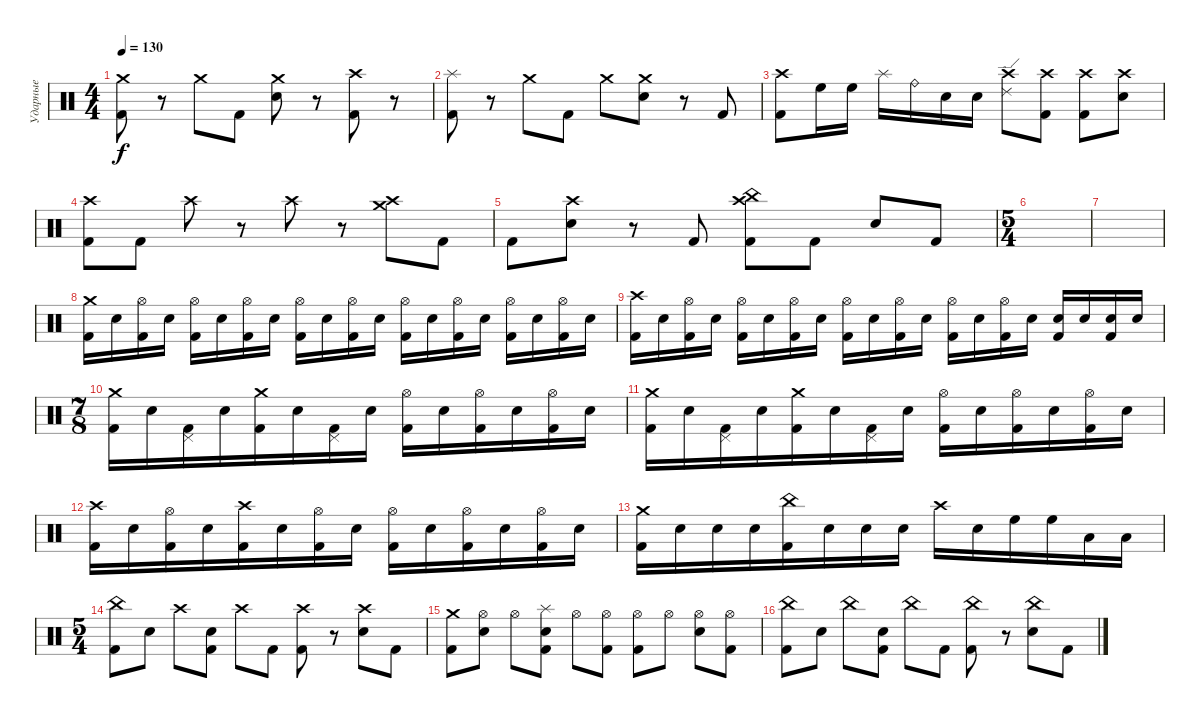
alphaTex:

\track ("Ударные" "Ударные") {instrument percussion}
\staff {score}
\articulation defaults
\ts (4 4)
\tempo 130
\clef neutral
\ks c
("Crash medium (hit)" "Kick (hit) 2").8{dy f} r.8 "Crash medium (hit)".8 "Kick (hit) 2".8 ("Crash medium (hit)" "Electric Snare (hit)").8 r.8 ("Crash high (hit)" "Kick (hit) 2").8 r.8 |
("Splash (hit)" "Kick (hit) 2").8 r.8 "Crash medium (hit)".8 "Kick (hit) 2".8 "Crash medium (hit)".8 ("Crash medium (hit)" "Electric Snare (hit)").8 r.8 "Kick (hit) 2".8 |
("Crash high (hit)" "Kick (hit) 2").8 "High Floor Tom (hit)".16 "High Floor Tom (hit)".16 "Splash (hit)".16 "Ride (bell)".16 "Electric Snare (hit)".16 "Electric Snare (hit)".16 ("Ride (edge) 2" "Crash high (hit)").8 ("Crash high (hit)" "Kick (hit) 2").8 ("Crash high (hit)" "Kick (hit) 2").8 ("Crash high (hit)" "Electric Snare (hit)").8 |
("Crash high (hit)" "Kick (hit) 2").8 "Kick (hit) 2".8 "Crash high (hit)".8 r.8 "Crash high (hit)".8 r.8 ("Crash high (hit)" "Crash medium (hit)").8 "Kick (hit) 2".8 |
"Kick (hit) 2".8 ("Crash high (hit)" "Electric Snare (hit)").8 r.8 "Kick (hit) 2".8 ("Crash high (hit)" "China (hit)" "Kick (hit) 2").8 "Kick (hit) 2".8 "Electric Snare (hit)".8 "Kick (hit) 2".8 |
\ts (5 4)
|
|
("Crash medium (hit)" "Kick (hit) 2").16 "Electric Snare (hit)".16 ("Hi-Hat (open)" "Kick (hit) 2").16 "Electric Snare (hit)".16 ("Hi-Hat (open)" "Kick (hit) 2").16 "Electric Snare (hit)".16 ("Hi-Hat (open)" "Kick (hit) 2").16 "Electric Snare (hit)".16 ("Hi-Hat (open)" "Kick (hit) 2").16 "Electric Snare (hit)".16 ("Hi-Hat (open)" "Kick (hit) 2").16 "Electric Snare (hit)".16 ("Hi-Hat (open)" "Kick (hit) 2").16 "Electric Snare (hit)".16 ("Hi-Hat (open)" "Kick (hit) 2").16 "Electric Snare (hit)".16 ("Hi-Hat (open)" "Kick (hit) 2").16 "Electric Snare (hit)".16 ("Hi-Hat (open)" "Kick (hit) 2").16 "Electric Snare (hit)".16 |
("Crash high (hit)" "Kick (hit) 2").16 "Electric Snare (hit)".16 ("Hi-Hat (open)" "Kick (hit) 2").16 "Electric Snare (hit)".16 ("Hi-Hat (open)" "Kick (hit) 2").16 "Electric Snare (hit)".16 ("Hi-Hat (open)" "Kick (hit) 2").16 "Electric Snare (hit)".16 ("Hi-Hat (open)" "Kick (hit) 2").16 "Electric Snare (hit)".16 ("Hi-Hat (open)" "Kick (hit) 2").16 "Electric Snare (hit)".16 ("Hi-Hat (open)" "Kick (hit) 2").16 "Electric Snare (hit)".16 ("Hi-Hat (open)" "Kick (hit) 2").16 "Electric Snare (hit)".16 ("Electric Snare (hit)" "Kick (hit) 2").16 "Electric Snare (hit)".16 ("Electric Snare (hit)" "Kick (hit) 2").16 "Electric Snare (hit)".16 |
\ts (7 8)
("Crash medium (hit)" "Kick (hit) 2").16 "Electric Snare (hit)".16 ("Pedal Hi-Hat (hit)" "Kick (hit) 2").16 "Electric Snare (hit)".16 ("Crash medium (hit)" "Kick (hit) 2").16 "Electric Snare (hit)".16 ("Pedal Hi-Hat (hit)" "Kick (hit) 2").16 "Electric Snare (hit)".16 ("Hi-Hat (open)" "Kick (hit) 2").16 "Electric Snare (hit)".16 ("Hi-Hat (open)" "Kick (hit) 2").16 "Electric Snare (hit)".16 ("Hi-Hat (open)" "Kick (hit) 2").16 "Electric Snare (hit)".16 |
("Crash medium (hit)" "Kick (hit) 2").16 "Electric Snare (hit)".16 ("Pedal Hi-Hat (hit)" "Kick (hit) 2").16 "Electric Snare (hit)".16 ("Crash medium (hit)" "Kick (hit) 2").16 "Electric Snare (hit)".16 ("Pedal Hi-Hat (hit)" "Kick (hit) 2").16 "Electric Snare (hit)".16 ("Hi-Hat (open)" "Kick (hit) 2").16 "Electric Snare (hit)".16 ("Hi-Hat (open)" "Kick (hit) 2").16 "Electric Snare (hit)".16 ("Hi-Hat (open)" "Kick (hit) 2").16 "Electric Snare (hit)".16 |
("Crash high (hit)" "Kick (hit) 2").16 "Electric Snare (hit)".16 ("Hi-Hat (open)" "Kick (hit) 2").16 "Electric Snare (hit)".16 ("Crash high (hit)" "Kick (hit) 2").16 "Electric Snare (hit)".16 ("Hi-Hat (open)" "Kick (hit) 2").16 "Electric Snare (hit)".16 ("Hi-Hat (open)" "Kick (hit) 2").16 "Electric Snare (hit)".16 ("Hi-Hat (open)" "Kick (hit) 2").16 "Electric Snare (hit)".16 ("Hi-Hat (open)" "Kick (hit) 2").16 "Electric Snare (hit)".16 |
("Crash medium (hit)" "Kick (hit) 2").16 "Electric Snare (hit)".16 "Electric Snare (hit)".16 "Electric Snare (hit)".16 ("China (hit)" "Kick (hit) 2").16 "Electric Snare (hit)".16 "Electric Snare (hit)".16 "Electric Snare (hit)".16 "Crash high (hit)".16 "Electric Snare (hit)".16 "High Floor Tom (hit)".16 "High Floor Tom (hit)".16 "Low Tom (hit)".16 "Low Tom (hit)".16 |
\ts (5 4)
("China (hit)" "Kick (hit) 2").8 "Electric Snare (hit)".8 "Crash high (hit)".8 ("Electric Snare (hit)" "Kick (hit) 2").8 "Crash high (hit)".8 "Kick (hit) 2".8 ("Crash high (hit)" "Kick (hit) 2").8 r.8 ("Crash high (hit)" "Electric Snare (hit)").8 "Kick (hit) 2".8 |
("Crash medium (hit)" "Kick (hit) 2").8 ("Hi-Hat (open)" "Electric Snare (hit)").8 "Hi-Hat (open)".8 ("Splash (hit)" "Electric Snare (hit)" "Kick (hit) 2").8 "Hi-Hat (open)".8 ("Hi-Hat (open)" "Kick (hit) 2").8 ("Hi-Hat (open)" "Kick (hit) 2").8 "Hi-Hat (open)".8 ("Hi-Hat (open)" "Electric Snare (hit)").8 ("Hi-Hat (open)" "Kick (hit) 2").8 |
("China (hit)" "Kick (hit) 2").8 "Electric Snare (hit)".8 "China (hit)".8 ("Electric Snare (hit)" "Kick (hit) 2").8 "China (hit)".8 "Kick (hit) 2".8 ("China (hit)" "Kick (hit) 2").8 r.8 ("China (hit)" "Electric Snare (hit)").8 "Kick (hit) 2".8
